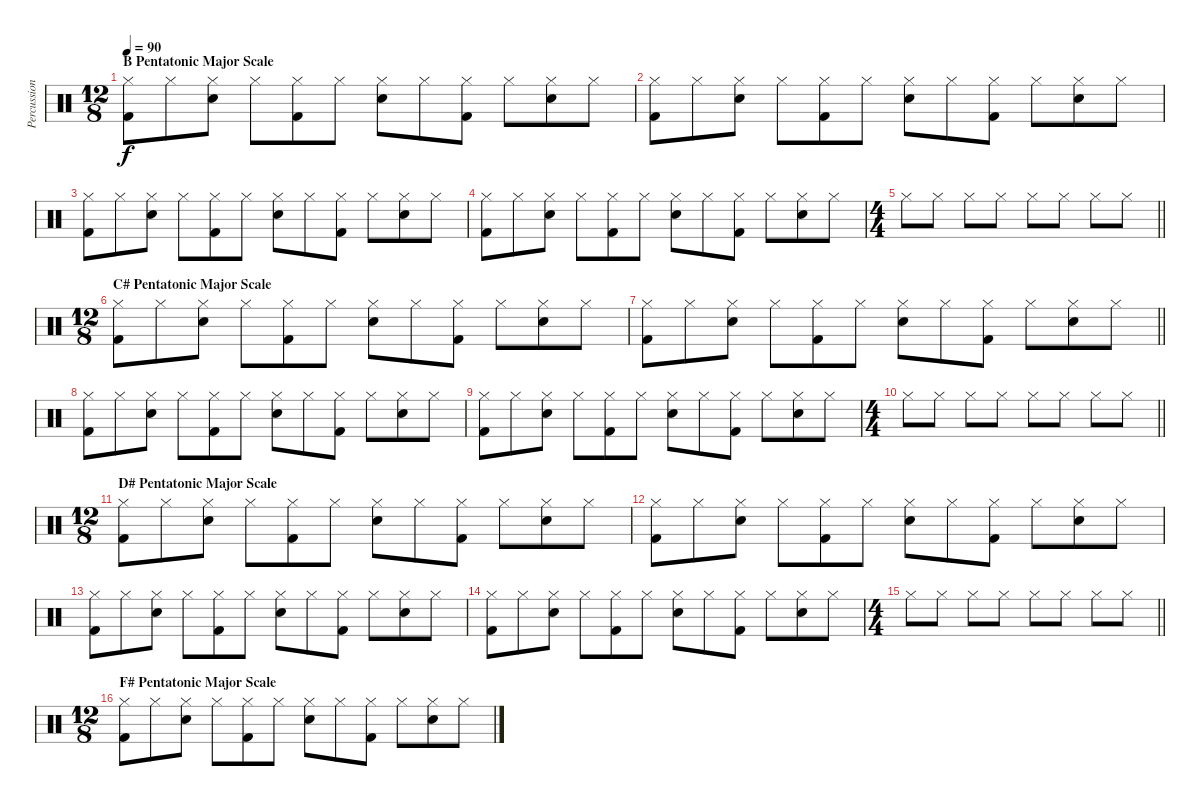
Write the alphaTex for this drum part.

\track ("Percussion" "Percussion") {instrument percussion}
\staff {score}
\articulation defaults
\ts (12 8)
\section ("" "B Pentatonic Major Scale")
\tempo 90
\clef neutral
\ks c
("Kick (hit) 2" "Hi-Hat (closed)").8{dy f} "Hi-Hat (closed)".8 ("Snare (hit) 2" "Hi-Hat (closed)").8 "Hi-Hat (closed)".8 ("Kick (hit) 2" "Hi-Hat (closed)").8 "Hi-Hat (closed)".8 ("Snare (hit) 2" "Hi-Hat (closed)").8 "Hi-Hat (closed)".8 ("Kick (hit) 2" "Hi-Hat (closed)").8 "Hi-Hat (closed)".8 ("Snare (hit) 2" "Hi-Hat (closed)").8 "Hi-Hat (closed)".8 |
("Kick (hit) 2" "Hi-Hat (closed)").8 "Hi-Hat (closed)".8 ("Snare (hit) 2" "Hi-Hat (closed)").8 "Hi-Hat (closed)".8 ("Kick (hit) 2" "Hi-Hat (closed)").8 "Hi-Hat (closed)".8 ("Snare (hit) 2" "Hi-Hat (closed)").8 "Hi-Hat (closed)".8 ("Kick (hit) 2" "Hi-Hat (closed)").8 "Hi-Hat (closed)".8 ("Snare (hit) 2" "Hi-Hat (closed)").8 "Hi-Hat (closed)".8 |
("Kick (hit) 2" "Hi-Hat (closed)").8 "Hi-Hat (closed)".8 ("Snare (hit) 2" "Hi-Hat (closed)").8 "Hi-Hat (closed)".8 ("Kick (hit) 2" "Hi-Hat (closed)").8 "Hi-Hat (closed)".8 ("Snare (hit) 2" "Hi-Hat (closed)").8 "Hi-Hat (closed)".8 ("Kick (hit) 2" "Hi-Hat (closed)").8 "Hi-Hat (closed)".8 ("Snare (hit) 2" "Hi-Hat (closed)").8 "Hi-Hat (closed)".8 |
("Kick (hit) 2" "Hi-Hat (closed)").8 "Hi-Hat (closed)".8 ("Snare (hit) 2" "Hi-Hat (closed)").8 "Hi-Hat (closed)".8 ("Kick (hit) 2" "Hi-Hat (closed)").8 "Hi-Hat (closed)".8 ("Snare (hit) 2" "Hi-Hat (closed)").8 "Hi-Hat (closed)".8 ("Kick (hit) 2" "Hi-Hat (closed)").8 "Hi-Hat (closed)".8 ("Snare (hit) 2" "Hi-Hat (closed)").8 "Hi-Hat (closed)".8 |
\ts (4 4)
\barLineRight lightlight "Hi-Hat (closed)".8 "Hi-Hat (closed)".8 "Hi-Hat (closed)".8 "Hi-Hat (closed)".8 "Hi-Hat (closed)".8 "Hi-Hat (closed)".8 "Hi-Hat (closed)".8 "Hi-Hat (closed)".8
|
\ts (12 8)
\section ("" "C# Pentatonic Major Scale")
("Kick (hit) 2" "Hi-Hat (closed)").8 "Hi-Hat (closed)".8 ("Snare (hit) 2" "Hi-Hat (closed)").8 "Hi-Hat (closed)".8 ("Kick (hit) 2" "Hi-Hat (closed)").8 "Hi-Hat (closed)".8 ("Snare (hit) 2" "Hi-Hat (closed)").8 "Hi-Hat (closed)".8 ("Kick (hit) 2" "Hi-Hat (closed)").8 "Hi-Hat (closed)".8 ("Snare (hit) 2" "Hi-Hat (closed)").8 "Hi-Hat (closed)".8 |
\barLineRight lightlight
("Kick (hit) 2" "Hi-Hat (closed)").8 "Hi-Hat (closed)".8 ("Snare (hit) 2" "Hi-Hat (closed)").8 "Hi-Hat (closed)".8 ("Kick (hit) 2" "Hi-Hat (closed)").8 "Hi-Hat (closed)".8 ("Snare (hit) 2" "Hi-Hat (closed)").8 "Hi-Hat (closed)".8 ("Kick (hit) 2" "Hi-Hat (closed)").8 "Hi-Hat (closed)".8 ("Snare (hit) 2" "Hi-Hat (closed)").8 "Hi-Hat (closed)".8 |
("Kick (hit) 2" "Hi-Hat (closed)").8 "Hi-Hat (closed)".8 ("Snare (hit) 2" "Hi-Hat (closed)").8 "Hi-Hat (closed)".8 ("Kick (hit) 2" "Hi-Hat (closed)").8 "Hi-Hat (closed)".8 ("Snare (hit) 2" "Hi-Hat (closed)").8 "Hi-Hat (closed)".8 ("Kick (hit) 2" "Hi-Hat (closed)").8 "Hi-Hat (closed)".8 ("Snare (hit) 2" "Hi-Hat (closed)").8 "Hi-Hat (closed)".8 |
("Kick (hit) 2" "Hi-Hat (closed)").8 "Hi-Hat (closed)".8 ("Snare (hit) 2" "Hi-Hat (closed)").8 "Hi-Hat (closed)".8 ("Kick (hit) 2" "Hi-Hat (closed)").8 "Hi-Hat (closed)".8 ("Snare (hit) 2" "Hi-Hat (closed)").8 "Hi-Hat (closed)".8 ("Kick (hit) 2" "Hi-Hat (closed)").8 "Hi-Hat (closed)".8 ("Snare (hit) 2" "Hi-Hat (closed)").8 "Hi-Hat (closed)".8 |
\ts (4 4)
\barLineRight lightlight "Hi-Hat (closed)".8 "Hi-Hat (closed)".8 "Hi-Hat (closed)".8 "Hi-Hat (closed)".8 "Hi-Hat (closed)".8 "Hi-Hat (closed)".8 "Hi-Hat (closed)".8 "Hi-Hat (closed)".8
|
\ts (12 8)
\section ("" "D# Pentatonic Major Scale")
("Kick (hit) 2" "Hi-Hat (closed)").8 "Hi-Hat (closed)".8 ("Snare (hit) 2" "Hi-Hat (closed)").8 "Hi-Hat (closed)".8 ("Kick (hit) 2" "Hi-Hat (closed)").8 "Hi-Hat (closed)".8 ("Snare (hit) 2" "Hi-Hat (closed)").8 "Hi-Hat (closed)".8 ("Kick (hit) 2" "Hi-Hat (closed)").8 "Hi-Hat (closed)".8 ("Snare (hit) 2" "Hi-Hat (closed)").8 "Hi-Hat (closed)".8 |
("Kick (hit) 2" "Hi-Hat (closed)").8 "Hi-Hat (closed)".8 ("Snare (hit) 2" "Hi-Hat (closed)").8 "Hi-Hat (closed)".8 ("Kick (hit) 2" "Hi-Hat (closed)").8 "Hi-Hat (closed)".8 ("Snare (hit) 2" "Hi-Hat (closed)").8 "Hi-Hat (closed)".8 ("Kick (hit) 2" "Hi-Hat (closed)").8 "Hi-Hat (closed)".8 ("Snare (hit) 2" "Hi-Hat (closed)").8 "Hi-Hat (closed)".8 |
("Kick (hit) 2" "Hi-Hat (closed)").8 "Hi-Hat (closed)".8 ("Snare (hit) 2" "Hi-Hat (closed)").8 "Hi-Hat (closed)".8 ("Kick (hit) 2" "Hi-Hat (closed)").8 "Hi-Hat (closed)".8 ("Snare (hit) 2" "Hi-Hat (closed)").8 "Hi-Hat (closed)".8 ("Kick (hit) 2" "Hi-Hat (closed)").8 "Hi-Hat (closed)".8 ("Snare (hit) 2" "Hi-Hat (closed)").8 "Hi-Hat (closed)".8 |
("Kick (hit) 2" "Hi-Hat (closed)").8 "Hi-Hat (closed)".8 ("Snare (hit) 2" "Hi-Hat (closed)").8 "Hi-Hat (closed)".8 ("Kick (hit) 2" "Hi-Hat (closed)").8 "Hi-Hat (closed)".8 ("Snare (hit) 2" "Hi-Hat (closed)").8 "Hi-Hat (closed)".8 ("Kick (hit) 2" "Hi-Hat (closed)").8 "Hi-Hat (closed)".8 ("Snare (hit) 2" "Hi-Hat (closed)").8 "Hi-Hat (closed)".8 |
\ts (4 4)
\barLineRight lightlight "Hi-Hat (closed)".8 "Hi-Hat (closed)".8 "Hi-Hat (closed)".8 "Hi-Hat (closed)".8 "Hi-Hat (closed)".8 "Hi-Hat (closed)".8 "Hi-Hat (closed)".8 "Hi-Hat (closed)".8
|
\ts (12 8)
\section ("" "F# Pentatonic Major Scale")
("Kick (hit) 2" "Hi-Hat (closed)").8 "Hi-Hat (closed)".8 ("Snare (hit) 2" "Hi-Hat (closed)").8 "Hi-Hat (closed)".8 ("Kick (hit) 2" "Hi-Hat (closed)").8 "Hi-Hat (closed)".8 ("Snare (hit) 2" "Hi-Hat (closed)").8 "Hi-Hat (closed)".8 ("Kick (hit) 2" "Hi-Hat (closed)").8 "Hi-Hat (closed)".8 ("Snare (hit) 2" "Hi-Hat (closed)").8 "Hi-Hat (closed)".8
